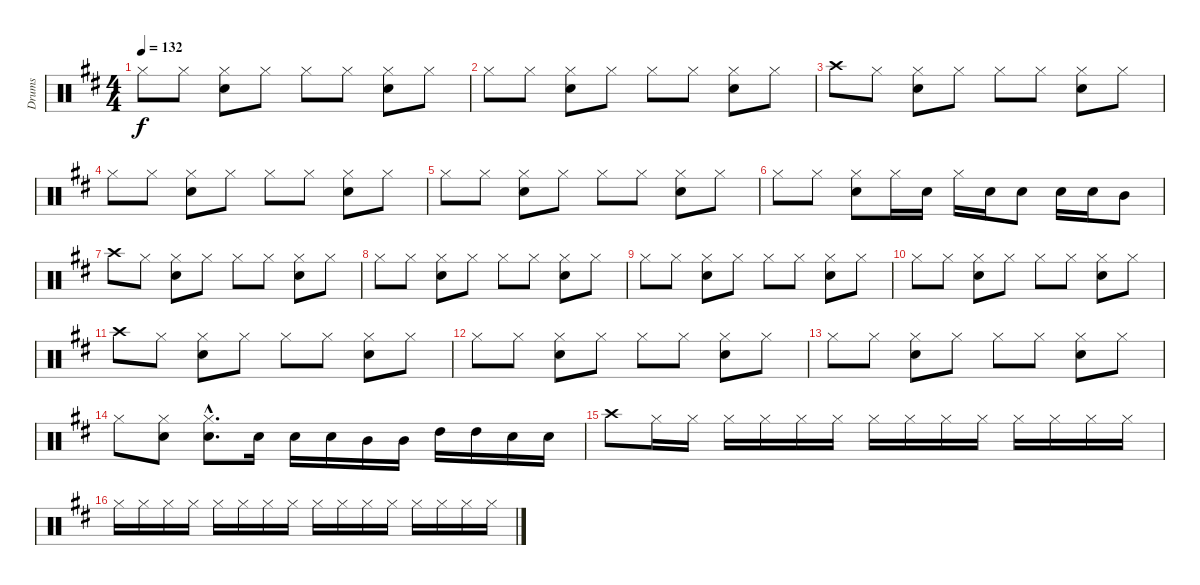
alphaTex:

\track ("Drums" "Drums") {instrument percussion}
\staff {score}
\articulation defaults
\ts (4 4)
\tempo 132
\clef neutral
\ks d "Hi-Hat (closed)".8{dy f} "Hi-Hat (closed)".8
("Hi-Hat (closed)" "Snare (hit) 2").8 "Hi-Hat (closed)".8 "Hi-Hat (closed)".8 "Hi-Hat (closed)".8 ("Hi-Hat (closed)" "Snare (hit) 2").8 "Hi-Hat (closed)".8 |
"Hi-Hat (closed)".8 "Hi-Hat (closed)".8 ("Hi-Hat (closed)" "Snare (hit) 2").8 "Hi-Hat (closed)".8 "Hi-Hat (closed)".8 "Hi-Hat (closed)".8 ("Hi-Hat (closed)" "Snare (hit) 2").8 "Hi-Hat (closed)".8 |
"Crash high (hit)".8 "Hi-Hat (closed)".8 ("Hi-Hat (closed)" "Snare (hit) 2").8 "Hi-Hat (closed)".8 "Hi-Hat (closed)".8 "Hi-Hat (closed)".8 ("Hi-Hat (closed)" "Snare (hit) 2").8 "Hi-Hat (closed)".8 |
"Hi-Hat (closed)".8 "Hi-Hat (closed)".8 ("Hi-Hat (closed)" "Snare (hit) 2").8 "Hi-Hat (closed)".8 "Hi-Hat (closed)".8 "Hi-Hat (closed)".8 ("Hi-Hat (closed)" "Snare (hit) 2").8 "Hi-Hat (closed)".8 |
"Hi-Hat (closed)".8 "Hi-Hat (closed)".8 ("Hi-Hat (closed)" "Snare (hit) 2").8 "Hi-Hat (closed)".8 "Hi-Hat (closed)".8 "Hi-Hat (closed)".8 ("Hi-Hat (closed)" "Snare (hit) 2").8 "Hi-Hat (closed)".8 |
"Hi-Hat (closed)".8 "Hi-Hat (closed)".8 ("Hi-Hat (closed)" "Snare (hit) 2").8 "Hi-Hat (closed)".16 "Snare (hit) 2".16 "Hi-Hat (closed)".16 "Snare (hit) 2".16 "Snare (hit) 2".8 "Snare (hit) 2".16 "Snare (hit) 2".16 "Mid Tom (hit)".8 |
"Crash high (hit)".8 "Hi-Hat (closed)".8 ("Hi-Hat (closed)" "Snare (hit) 2").8 "Hi-Hat (closed)".8 "Hi-Hat (closed)".8 "Hi-Hat (closed)".8 ("Hi-Hat (closed)" "Snare (hit) 2").8 "Hi-Hat (closed)".8 |
"Hi-Hat (closed)".8 "Hi-Hat (closed)".8 ("Hi-Hat (closed)" "Snare (hit) 2").8 "Hi-Hat (closed)".8 "Hi-Hat (closed)".8 "Hi-Hat (closed)".8 ("Hi-Hat (closed)" "Snare (hit) 2").8 "Hi-Hat (closed)".8 |
"Hi-Hat (closed)".8 "Hi-Hat (closed)".8 ("Hi-Hat (closed)" "Snare (hit) 2").8 "Hi-Hat (closed)".8 "Hi-Hat (closed)".8 "Hi-Hat (closed)".8 ("Hi-Hat (closed)" "Snare (hit) 2").8 "Hi-Hat (closed)".8 |
"Hi-Hat (closed)".8 "Hi-Hat (closed)".8 ("Hi-Hat (closed)" "Snare (hit) 2").8 "Hi-Hat (closed)".8 "Hi-Hat (closed)".8 "Hi-Hat (closed)".8 ("Hi-Hat (closed)" "Snare (hit) 2").8 "Hi-Hat (closed)".8 |
"Crash high (hit)".8 "Hi-Hat (closed)".8 ("Hi-Hat (closed)" "Snare (hit) 2").8 "Hi-Hat (closed)".8 "Hi-Hat (closed)".8 "Hi-Hat (closed)".8 ("Hi-Hat (closed)" "Snare (hit) 2").8 "Hi-Hat (closed)".8 |
"Hi-Hat (closed)".8 "Hi-Hat (closed)".8 ("Hi-Hat (closed)" "Snare (hit) 2").8 "Hi-Hat (closed)".8 "Hi-Hat (closed)".8 "Hi-Hat (closed)".8 ("Hi-Hat (closed)" "Snare (hit) 2").8 "Hi-Hat (closed)".8 |
"Hi-Hat (closed)".8 "Hi-Hat (closed)".8 ("Hi-Hat (closed)" "Snare (hit) 2").8 "Hi-Hat (closed)".8 "Hi-Hat (closed)".8 "Hi-Hat (closed)".8 ("Hi-Hat (closed)" "Snare (hit) 2").8 "Hi-Hat (closed)".8 |
"Hi-Hat (closed)".8 ("Hi-Hat (closed)" "Snare (hit) 2").8 ("Hi-Hat (closed)"{hac} "Snare (hit) 2"{hac}).8{d} "Snare (hit) 2".16 "Snare (hit) 2".16 "Snare (hit) 2".16 "Mid Tom (hit)".16 "Mid Tom (hit)".16 "High Tom (hit)".16 "High Tom (hit)".16 "Snare (hit) 2".16 "Snare (hit) 2".16 |
"Crash high (hit)".8 "Hi-Hat (closed)".16 "Hi-Hat (closed)".16 "Hi-Hat (closed)".16 "Hi-Hat (closed)".16 "Hi-Hat (closed)".16 "Hi-Hat (closed)".16 "Hi-Hat (closed)".16 "Hi-Hat (closed)".16 "Hi-Hat (closed)".16 "Hi-Hat (closed)".16 "Hi-Hat (closed)".16 "Hi-Hat (closed)".16 "Hi-Hat (closed)".16 "Hi-Hat (closed)".16 |
"Hi-Hat (closed)".16 "Hi-Hat (closed)".16 "Hi-Hat (closed)".16 "Hi-Hat (closed)".16 "Hi-Hat (closed)".16 "Hi-Hat (closed)".16 "Hi-Hat (closed)".16 "Hi-Hat (closed)".16 "Hi-Hat (closed)".16 "Hi-Hat (closed)".16 "Hi-Hat (closed)".16 "Hi-Hat (closed)".16 "Hi-Hat (closed)".16 "Hi-Hat (closed)".16 "Hi-Hat (closed)".16 "Hi-Hat (closed)".16
